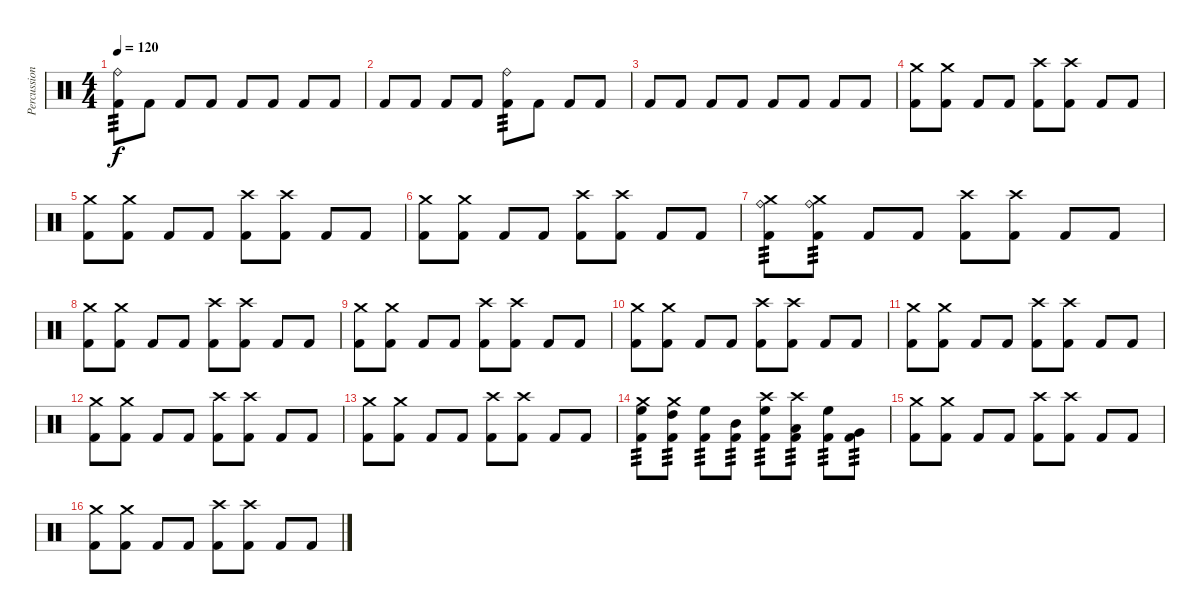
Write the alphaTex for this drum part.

\track ("Percussions" "Percussion") {instrument percussion}
\staff {score}
\articulation defaults
\ts (4 4)
\tempo 120
\clef neutral
\ks c
("Ride (bell)" "Kick (hit) 2").8{tp 3 dy f} "Kick (hit) 2".8 "Kick (hit) 2".8 "Kick (hit) 2".8 "Kick (hit) 2".8 "Kick (hit) 2".8 "Kick (hit) 2".8 "Kick (hit) 2".8 |
"Kick (hit) 2".8 "Kick (hit) 2".8 "Kick (hit) 2".8 "Kick (hit) 2".8 ("Ride (bell)" "Kick (hit) 2").8{tp 3} "Kick (hit) 2".8 "Kick (hit) 2".8 "Kick (hit) 2".8 |
"Kick (hit) 2".8 "Kick (hit) 2".8 "Kick (hit) 2".8 "Kick (hit) 2".8 "Kick (hit) 2".8 "Kick (hit) 2".8 "Kick (hit) 2".8 "Kick (hit) 2".8 |
("Crash medium (hit)" "Kick (hit) 2").8 ("Crash medium (hit)" "Kick (hit) 2").8 "Kick (hit) 2".8 "Kick (hit) 2".8 ("Crash high (hit)" "Kick (hit) 2").8 ("Crash high (hit)" "Kick (hit) 2").8 "Kick (hit) 2".8 "Kick (hit) 2".8 |
("Crash medium (hit)" "Kick (hit) 2").8 ("Crash medium (hit)" "Kick (hit) 2").8 "Kick (hit) 2".8 "Kick (hit) 2".8 ("Crash high (hit)" "Kick (hit) 2").8 ("Crash high (hit)" "Kick (hit) 2").8 "Kick (hit) 2".8 "Kick (hit) 2".8 |
("Crash medium (hit)" "Kick (hit) 2").8 ("Crash medium (hit)" "Kick (hit) 2").8 "Kick (hit) 2".8 "Kick (hit) 2".8 ("Crash high (hit)" "Kick (hit) 2").8 ("Crash high (hit)" "Kick (hit) 2").8 "Kick (hit) 2".8 "Kick (hit) 2".8 |
("Ride (bell)" "Crash medium (hit)" "Kick (hit) 2").8{tp 3} ("Ride (bell)" "Crash medium (hit)" "Kick (hit) 2").8{tp 3} "Kick (hit) 2".8 "Kick (hit) 2".8 ("Crash high (hit)" "Kick (hit) 2").8 ("Crash high (hit)" "Kick (hit) 2").8 "Kick (hit) 2".8 "Kick (hit) 2".8 |
("Crash medium (hit)" "Kick (hit) 2").8 ("Crash medium (hit)" "Kick (hit) 2").8 "Kick (hit) 2".8 "Kick (hit) 2".8 ("Crash high (hit)" "Kick (hit) 2").8 ("Crash high (hit)" "Kick (hit) 2").8 "Kick (hit) 2".8 "Kick (hit) 2".8 |
("Crash medium (hit)" "Kick (hit) 2").8 ("Crash medium (hit)" "Kick (hit) 2").8 "Kick (hit) 2".8 "Kick (hit) 2".8 ("Crash high (hit)" "Kick (hit) 2").8 ("Crash high (hit)" "Kick (hit) 2").8 "Kick (hit) 2".8 "Kick (hit) 2".8 |
("Crash medium (hit)" "Kick (hit) 2").8 ("Crash medium (hit)" "Kick (hit) 2").8 "Kick (hit) 2".8 "Kick (hit) 2".8 ("Crash high (hit)" "Kick (hit) 2").8 ("Crash high (hit)" "Kick (hit) 2").8 "Kick (hit) 2".8 "Kick (hit) 2".8 |
("Crash medium (hit)" "Kick (hit) 2").8 ("Crash medium (hit)" "Kick (hit) 2").8 "Kick (hit) 2".8 "Kick (hit) 2".8 ("Crash high (hit)" "Kick (hit) 2").8 ("Crash high (hit)" "Kick (hit) 2").8 "Kick (hit) 2".8 "Kick (hit) 2".8 |
("Crash medium (hit)" "Kick (hit) 2").8 ("Crash medium (hit)" "Kick (hit) 2").8 "Kick (hit) 2".8 "Kick (hit) 2".8 ("Crash high (hit)" "Kick (hit) 2").8 ("Crash high (hit)" "Kick (hit) 2").8 "Kick (hit) 2".8 "Kick (hit) 2".8 |
("Crash medium (hit)" "Kick (hit) 2").8 ("Crash medium (hit)" "Kick (hit) 2").8 "Kick (hit) 2".8 "Kick (hit) 2".8 ("Crash high (hit)" "Kick (hit) 2").8 ("Crash high (hit)" "Kick (hit) 2").8 "Kick (hit) 2".8 "Kick (hit) 2".8 |
("High Floor Tom (hit)" "Crash medium (hit)" "Kick (hit) 2").8{tp 3} ("High Tom (hit)" "Crash medium (hit)" "Kick (hit) 2").8{tp 3} ("High Floor Tom (hit)" "Kick (hit) 2").8{tp 3} ("Mid Tom (hit)" "Kick (hit) 2").8{tp 3} ("High Floor Tom (hit)" "Crash high (hit)" "Kick (hit) 2").8{tp 3} ("Low Tom (hit)" "Crash high (hit)" "Kick (hit) 2").8{tp 3} ("High Floor Tom (hit)" "Kick (hit) 2").8{tp 3} ("Very Low Tom (hit)" "Kick (hit) 2").8{tp 3} |
("Crash medium (hit)" "Kick (hit) 2").8 ("Crash medium (hit)" "Kick (hit) 2").8 "Kick (hit) 2".8 "Kick (hit) 2".8 ("Crash high (hit)" "Kick (hit) 2").8 ("Crash high (hit)" "Kick (hit) 2").8 "Kick (hit) 2".8 "Kick (hit) 2".8 |
("Crash medium (hit)" "Kick (hit) 2").8 ("Crash medium (hit)" "Kick (hit) 2").8 "Kick (hit) 2".8 "Kick (hit) 2".8 ("Crash high (hit)" "Kick (hit) 2").8 ("Crash high (hit)" "Kick (hit) 2").8 "Kick (hit) 2".8 "Kick (hit) 2".8
